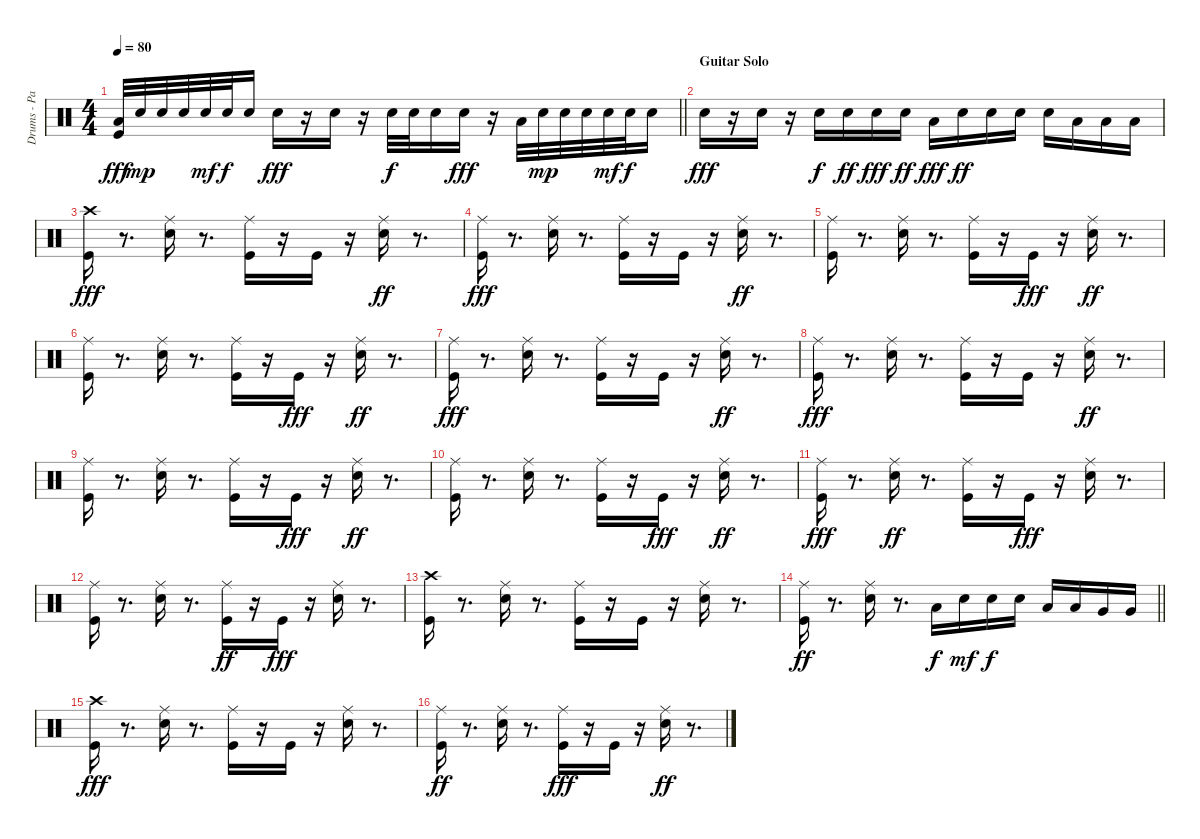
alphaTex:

\track ("Drums - Paice" "Drums - Pa") {instrument percussion}
\staff {score}
\articulation defaults
\ts (4 4)
\tempo 80
\clef neutral
\barLineRight lightlight
\ks c
("Kick (hit)" "Low Tom (hit)").32{dy fff} "Snare (hit) 2".32{dy mp} "Snare (hit) 2".32 "Snare (hit) 2".32 "Snare (hit) 2".32{dy mf} "Snare (hit) 2".32{dy f} "Snare (hit) 2".16 "Snare (hit) 2".16{dy fff} r.16 "Snare (hit) 2".16 r.16 "Snare (hit) 2".32{dy f} "Snare (hit) 2".32 "Snare (hit) 2".16 "Snare (hit) 2".16{dy fff} r.16 "Low Tom (hit)".32 "Snare (hit) 2".32{dy mp} "Snare (hit) 2".32 "Snare (hit) 2".32 "Snare (hit) 2".32{dy mf} "Snare (hit) 2".32{dy f} "Snare (hit) 2".16 |
\section ("" "Guitar Solo")
"Snare (hit) 2".16{dy fff} r.16 "Snare (hit) 2".16 r.16 "Snare (hit) 2".16{dy f} "Snare (hit) 2".16{dy ff} "Snare (hit) 2".16{dy fff} "Snare (hit) 2".16{dy ff} "Low Tom (hit)".16{dy fff} "Snare (hit) 2".16{dy ff} "Snare (hit) 2".16 "Snare (hit) 2".16 "Snare (hit) 2".16 "Low Tom (hit)".16 "Low Tom (hit)".16 "Low Tom (hit)".16 |
("Crash high (hit)" "Kick (hit)").16{dy fff} r.8{d} ("Ride (middle)" "Snare (hit) 2").16 r.8{d} ("Ride (middle)" "Kick (hit)").16 r.16 "Kick (hit)".16 r.16 ("Snare (hit) 2" "Ride (middle)").16{dy ff} r.8{d} |
("Ride (middle)" "Kick (hit)").16{dy fff} r.8{d} ("Ride (middle)" "Snare (hit) 2").16 r.8{d} ("Ride (middle)" "Kick (hit)").16 r.16 "Kick (hit)".16 r.16 ("Snare (hit) 2" "Ride (middle)").16{dy ff} r.8{d} |
("Kick (hit)" "Ride (middle)").16 r.8{d} ("Snare (hit) 2" "Ride (middle)").16 r.8{d} ("Kick (hit)" "Ride (middle)").16 r.16 "Kick (hit)".16{dy fff} r.16 ("Snare (hit) 2" "Ride (middle)").16{dy ff} r.8{d} |
("Kick (hit)" "Ride (middle)").16 r.8{d} ("Snare (hit) 2" "Ride (middle)").16 r.8{d} ("Kick (hit)" "Ride (middle)").16 r.16 "Kick (hit)".16{dy fff} r.16 ("Snare (hit) 2" "Ride (middle)").16{dy ff} r.8{d} |
("Ride (middle)" "Kick (hit)").16{dy fff} r.8{d} ("Ride (middle)" "Snare (hit) 2").16 r.8{d} ("Ride (middle)" "Kick (hit)").16 r.16 "Kick (hit)".16 r.16 ("Snare (hit) 2" "Ride (middle)").16{dy ff} r.8{d} |
("Ride (middle)" "Kick (hit)").16{dy fff} r.8{d} ("Ride (middle)" "Snare (hit) 2").16 r.8{d} ("Ride (middle)" "Kick (hit)").16 r.16 "Kick (hit)".16 r.16 ("Snare (hit) 2" "Ride (middle)").16{dy ff} r.8{d} |
("Kick (hit)" "Ride (middle)").16 r.8{d} ("Snare (hit) 2" "Ride (middle)").16 r.8{d} ("Kick (hit)" "Ride (middle)").16 r.16 "Kick (hit)".16{dy fff} r.16 ("Snare (hit) 2" "Ride (middle)").16{dy ff} r.8{d} |
("Kick (hit)" "Ride (middle)").16 r.8{d} ("Snare (hit) 2" "Ride (middle)").16 r.8{d} ("Kick (hit)" "Ride (middle)").16 r.16 "Kick (hit)".16{dy fff} r.16 ("Snare (hit) 2" "Ride (middle)").16{dy ff} r.8{d} |
("Ride (middle)" "Kick (hit)").16{dy fff} r.8{d} ("Snare (hit) 2" "Ride (middle)").16{dy ff} r.8{d} ("Kick (hit)" "Ride (middle)").16 r.16 "Kick (hit)".16{dy fff} r.16 ("Ride (middle)" "Snare (hit) 2").16 r.8{d} |
("Ride (middle)" "Kick (hit)").16 r.8{d} ("Ride (middle)" "Snare (hit) 2").16 r.8{d} ("Kick (hit)" "Ride (middle)").16{dy ff} r.16 "Kick (hit)".16{dy fff} r.16 ("Ride (middle)" "Snare (hit) 2").16 r.8{d} |
("Kick (hit)" "Crash high (hit)").16 r.8{d} ("Ride (middle)" "Snare (hit) 2").16 r.8{d} ("Ride (middle)" "Kick (hit)").16 r.16 "Kick (hit)".16 r.16 ("Ride (middle)" "Snare (hit) 2").16 r.8{d} |
\barLineRight lightlight
("Kick (hit)" "Ride (middle)").16{dy ff} r.8{d} ("Snare (hit) 2" "Ride (middle)").16 r.8{d} "Low Tom (hit)".16{dy f} "Snare (hit) 2".16{dy mf} "Snare (hit) 2".16{dy f} "Snare (hit) 2".16 "Low Tom (hit)".16 "Low Tom (hit)".16 "Very Low Tom (hit)".16 "Very Low Tom (hit)".16 |
\section ("" "")
("Kick (hit)" "Crash high (hit)").16{dy fff} r.8{d} ("Ride (middle)" "Snare (hit) 2").16 r.8{d} ("Ride (middle)" "Kick (hit)").16 r.16 "Kick (hit)".16 r.16 ("Ride (middle)" "Snare (hit) 2").16 r.8{d} |
("Kick (hit)" "Ride (middle)").16{dy ff} r.8{d} ("Snare (hit) 2" "Ride (middle)").16 r.8{d} ("Ride (middle)" "Kick (hit)").16{dy fff} r.16 "Kick (hit)".16 r.16 ("Snare (hit) 2" "Ride (middle)").16{dy ff} r.8{d}
